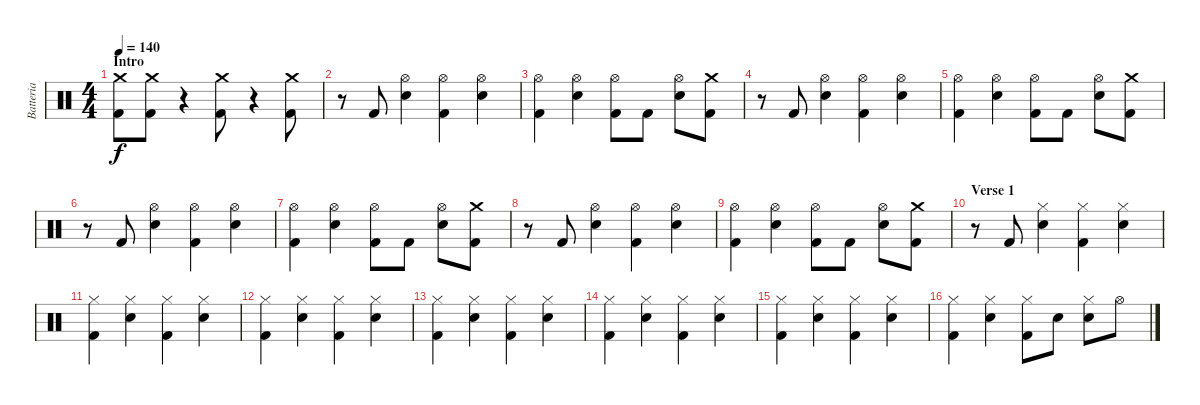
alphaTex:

\track ("Batteria" "Batteria") {instrument percussion}
\staff {score}
\articulation defaults
\ts (4 4)
\section ("" "Intro")
\tempo 140
\clef neutral
\ks c
("Crash medium (hit)" "Kick (hit) 2").8{dy f} ("Crash medium (hit)" "Kick (hit) 2").8 r.4 ("Crash medium (hit)" "Kick (hit) 2").8 r.4 ("Crash medium (hit)" "Kick (hit) 2").8 |
r.8 "Kick (hit) 2".8 ("Hi-Hat (open)" "Snare (hit) 2").4 ("Hi-Hat (open)" "Kick (hit) 2").4 ("Hi-Hat (open)" "Snare (hit) 2").4 |
("Hi-Hat (open)" "Kick (hit) 2").4 ("Hi-Hat (open)" "Snare (hit) 2").4 ("Hi-Hat (open)" "Kick (hit) 2").8 "Kick (hit) 2".8 ("Hi-Hat (open)" "Snare (hit) 2").8 ("Crash medium (hit)" "Kick (hit) 2").8 |
r.8 "Kick (hit) 2".8 ("Hi-Hat (open)" "Snare (hit) 2").4 ("Hi-Hat (open)" "Kick (hit) 2").4 ("Hi-Hat (open)" "Snare (hit) 2").4 |
("Hi-Hat (open)" "Kick (hit) 2").4 ("Hi-Hat (open)" "Snare (hit) 2").4 ("Hi-Hat (open)" "Kick (hit) 2").8 "Kick (hit) 2".8 ("Hi-Hat (open)" "Snare (hit) 2").8 ("Crash medium (hit)" "Kick (hit) 2").8 |
r.8 "Kick (hit) 2".8 ("Hi-Hat (open)" "Snare (hit) 2").4 ("Hi-Hat (open)" "Kick (hit) 2").4 ("Hi-Hat (open)" "Snare (hit) 2").4 |
("Hi-Hat (open)" "Kick (hit) 2").4 ("Hi-Hat (open)" "Snare (hit) 2").4 ("Hi-Hat (open)" "Kick (hit) 2").8 "Kick (hit) 2".8 ("Hi-Hat (open)" "Snare (hit) 2").8 ("Crash medium (hit)" "Kick (hit) 2").8 |
r.8 "Kick (hit) 2".8 ("Hi-Hat (open)" "Snare (hit) 2").4 ("Hi-Hat (open)" "Kick (hit) 2").4 ("Hi-Hat (open)" "Snare (hit) 2").4 |
("Hi-Hat (open)" "Kick (hit) 2").4 ("Hi-Hat (open)" "Snare (hit) 2").4 ("Hi-Hat (open)" "Kick (hit) 2").8 "Kick (hit) 2".8 ("Hi-Hat (open)" "Snare (hit) 2").8 ("Crash medium (hit)" "Kick (hit) 2").8 |
\section ("" "Verse 1")
r.8 "Kick (hit) 2".8 ("Hi-Hat (closed)" "Snare (hit) 2").4 ("Hi-Hat (closed)" "Kick (hit) 2").4 ("Hi-Hat (closed)" "Snare (hit) 2").4 |
("Hi-Hat (closed)" "Kick (hit) 2").4 ("Hi-Hat (closed)" "Snare (hit) 2").4 ("Hi-Hat (closed)" "Kick (hit) 2").4 ("Hi-Hat (closed)" "Snare (hit) 2").4 |
("Hi-Hat (closed)" "Kick (hit) 2").4 ("Hi-Hat (closed)" "Snare (hit) 2").4 ("Hi-Hat (closed)" "Kick (hit) 2").4 ("Hi-Hat (closed)" "Snare (hit) 2").4 |
("Hi-Hat (closed)" "Kick (hit) 2").4 ("Hi-Hat (closed)" "Snare (hit) 2").4 ("Hi-Hat (closed)" "Kick (hit) 2").4 ("Hi-Hat (closed)" "Snare (hit) 2").4 |
("Hi-Hat (closed)" "Kick (hit) 2").4 ("Hi-Hat (closed)" "Snare (hit) 2").4 ("Hi-Hat (closed)" "Kick (hit) 2").4 ("Hi-Hat (closed)" "Snare (hit) 2").4 |
("Hi-Hat (closed)" "Kick (hit) 2").4 ("Hi-Hat (closed)" "Snare (hit) 2").4 ("Hi-Hat (closed)" "Kick (hit) 2").4 ("Hi-Hat (closed)" "Snare (hit) 2").4 |
("Hi-Hat (closed)" "Kick (hit) 2").4 ("Hi-Hat (closed)" "Snare (hit) 2").4 ("Hi-Hat (closed)" "Kick (hit) 2").8 "Snare (hit) 2".8 ("Hi-Hat (closed)" "Snare (hit) 2").8 "Hi-Hat (open)".8
